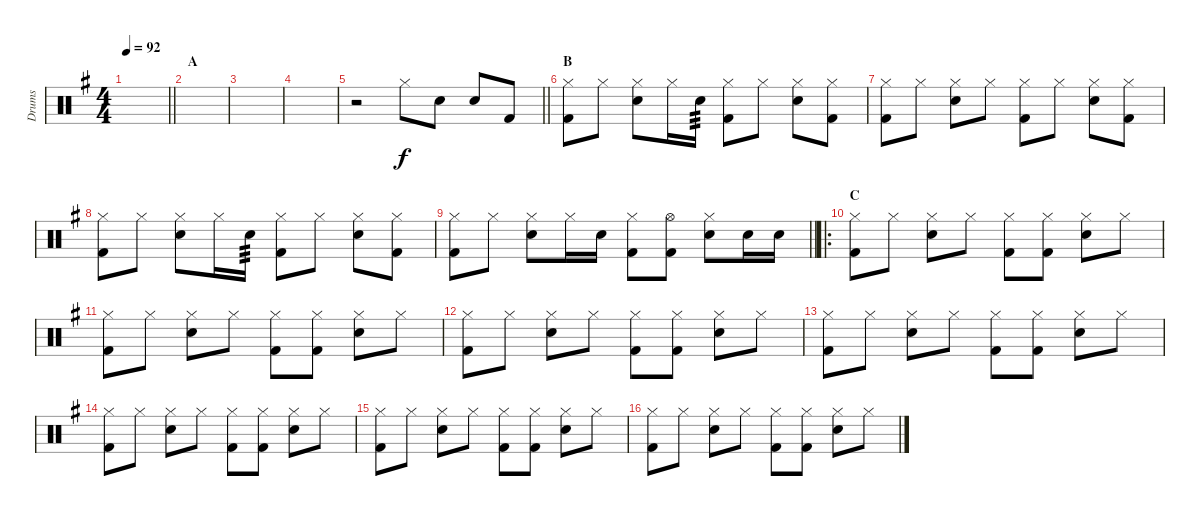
\track ("Drums" "Drums") {instrument percussion}
\staff {score}
\articulation defaults
\ts (4 4)
\tempo 92
\clef neutral
\barLineRight lightlight
\ks g
|
\section ("" "A")
|
|
|
\barLineRight lightlight
r.2 "Hi-Hat (closed)".8 "Snare (hit) 2".8 "Snare (hit) 2".8 "Kick (hit) 2".8 |
\section ("" "B")
("Hi-Hat (closed)" "Kick (hit) 2").8 "Hi-Hat (closed)".8 ("Hi-Hat (closed)" "Snare (hit) 2").8 "Hi-Hat (closed)".16 "Snare (hit) 2".16{tp 3} ("Hi-Hat (closed)" "Kick (hit) 2").8 "Hi-Hat (closed)".8 ("Hi-Hat (closed)" "Snare (hit) 2").8 ("Hi-Hat (closed)" "Kick (hit) 2").8 |
("Hi-Hat (closed)" "Kick (hit) 2").8 "Hi-Hat (closed)".8 ("Hi-Hat (closed)" "Snare (hit) 2").8 "Hi-Hat (closed)".8 ("Hi-Hat (closed)" "Kick (hit) 2").8 "Hi-Hat (closed)".8 ("Hi-Hat (closed)" "Snare (hit) 2").8 ("Hi-Hat (closed)" "Kick (hit) 2").8 |
("Hi-Hat (closed)" "Kick (hit) 2").8 "Hi-Hat (closed)".8 ("Hi-Hat (closed)" "Snare (hit) 2").8 "Hi-Hat (closed)".16 "Snare (hit) 2".16{tp 3} ("Hi-Hat (closed)" "Kick (hit) 2").8 "Hi-Hat (closed)".8 ("Hi-Hat (closed)" "Snare (hit) 2").8 ("Hi-Hat (closed)" "Kick (hit) 2").8 |
\barLineRight lightlight
("Hi-Hat (closed)" "Kick (hit) 2").8 "Hi-Hat (closed)".8 ("Hi-Hat (closed)" "Snare (hit) 2").8 "Hi-Hat (closed)".16 "Snare (hit) 2".16 ("Hi-Hat (closed)" "Kick (hit) 2").8 ("Hi-Hat (open)" "Kick (hit) 2").8 ("Hi-Hat (closed)" "Snare (hit) 2").8 "Snare (hit) 2".16 "Snare (hit) 2".16 |
\ro
\section ("" "C")
("Hi-Hat (closed)" "Kick (hit) 2").8 "Hi-Hat (closed)".8 ("Hi-Hat (closed)" "Snare (hit) 2").8 "Hi-Hat (closed)".8 ("Hi-Hat (closed)" "Kick (hit) 2").8 ("Hi-Hat (closed)" "Kick (hit) 2").8 ("Hi-Hat (closed)" "Snare (hit) 2").8 "Hi-Hat (closed)".8 |
("Hi-Hat (closed)" "Kick (hit) 2").8 "Hi-Hat (closed)".8 ("Hi-Hat (closed)" "Snare (hit) 2").8 "Hi-Hat (closed)".8 ("Hi-Hat (closed)" "Kick (hit) 2").8 ("Hi-Hat (closed)" "Kick (hit) 2").8 ("Hi-Hat (closed)" "Snare (hit) 2").8 "Hi-Hat (closed)".8 |
("Hi-Hat (closed)" "Kick (hit) 2").8 "Hi-Hat (closed)".8 ("Hi-Hat (closed)" "Snare (hit) 2").8 "Hi-Hat (closed)".8 ("Hi-Hat (closed)" "Kick (hit) 2").8 ("Hi-Hat (closed)" "Kick (hit) 2").8 ("Hi-Hat (closed)" "Snare (hit) 2").8 "Hi-Hat (closed)".8 |
("Hi-Hat (closed)" "Kick (hit) 2").8 "Hi-Hat (closed)".8 ("Hi-Hat (closed)" "Snare (hit) 2").8 "Hi-Hat (closed)".8 ("Hi-Hat (closed)" "Kick (hit) 2").8 ("Hi-Hat (closed)" "Kick (hit) 2").8 ("Hi-Hat (closed)" "Snare (hit) 2").8 "Hi-Hat (closed)".8 |
("Hi-Hat (closed)" "Kick (hit) 2").8 "Hi-Hat (closed)".8 ("Hi-Hat (closed)" "Snare (hit) 2").8 "Hi-Hat (closed)".8 ("Hi-Hat (closed)" "Kick (hit) 2").8 ("Hi-Hat (closed)" "Kick (hit) 2").8 ("Hi-Hat (closed)" "Snare (hit) 2").8 "Hi-Hat (closed)".8 |
("Hi-Hat (closed)" "Kick (hit) 2").8 "Hi-Hat (closed)".8 ("Hi-Hat (closed)" "Snare (hit) 2").8 "Hi-Hat (closed)".8 ("Hi-Hat (closed)" "Kick (hit) 2").8 ("Hi-Hat (closed)" "Kick (hit) 2").8 ("Hi-Hat (closed)" "Snare (hit) 2").8 "Hi-Hat (closed)".8 |
("Hi-Hat (closed)" "Kick (hit) 2").8 "Hi-Hat (closed)".8 ("Hi-Hat (closed)" "Snare (hit) 2").8 "Hi-Hat (closed)".8 ("Hi-Hat (closed)" "Kick (hit) 2").8 ("Hi-Hat (closed)" "Kick (hit) 2").8 ("Hi-Hat (closed)" "Snare (hit) 2").8 "Hi-Hat (closed)".8
